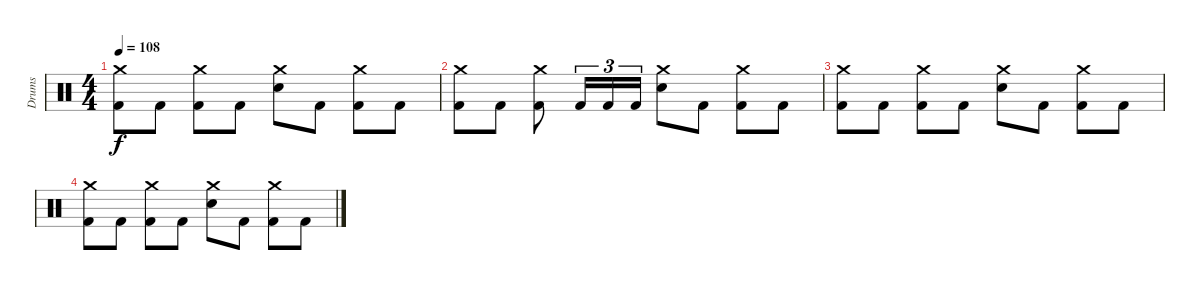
\track ("Drums" "Drums") {instrument percussion}
\staff {score}
\articulation defaults
\ts (4 4)
\tempo 108
\clef neutral
\ks c
("Crash medium (hit)" "Kick (hit) 2").8{dy f} "Kick (hit) 2".8 ("Crash medium (hit)" "Kick (hit) 2").8 "Kick (hit) 2".8 ("Crash medium (hit)" "Snare (hit) 2").8 "Kick (hit) 2".8 ("Crash medium (hit)" "Kick (hit) 2").8 "Kick (hit) 2".8 |
("Crash medium (hit)" "Kick (hit) 2").8 "Kick (hit) 2".8 ("Crash medium (hit)" "Kick (hit) 2").8 "Kick (hit) 2".16{tu (3 2)} "Kick (hit) 2".16{tu (3 2)} "Kick (hit) 2".16{tu (3 2)} ("Crash medium (hit)" "Snare (hit) 2").8 "Kick (hit) 2".8 ("Crash medium (hit)" "Kick (hit) 2").8 "Kick (hit) 2".8 |
("Crash medium (hit)" "Kick (hit) 2").8 "Kick (hit) 2".8 ("Crash medium (hit)" "Kick (hit) 2").8 "Kick (hit) 2".8 ("Crash medium (hit)" "Snare (hit) 2").8 "Kick (hit) 2".8 ("Crash medium (hit)" "Kick (hit) 2").8 "Kick (hit) 2".8 |
("Crash medium (hit)" "Kick (hit) 2").8 "Kick (hit) 2".8 ("Crash medium (hit)" "Kick (hit) 2").8 "Kick (hit) 2".8 ("Crash medium (hit)" "Snare (hit) 2").8 "Kick (hit) 2".8 ("Crash medium (hit)" "Kick (hit) 2").8 "Kick (hit) 2".8
